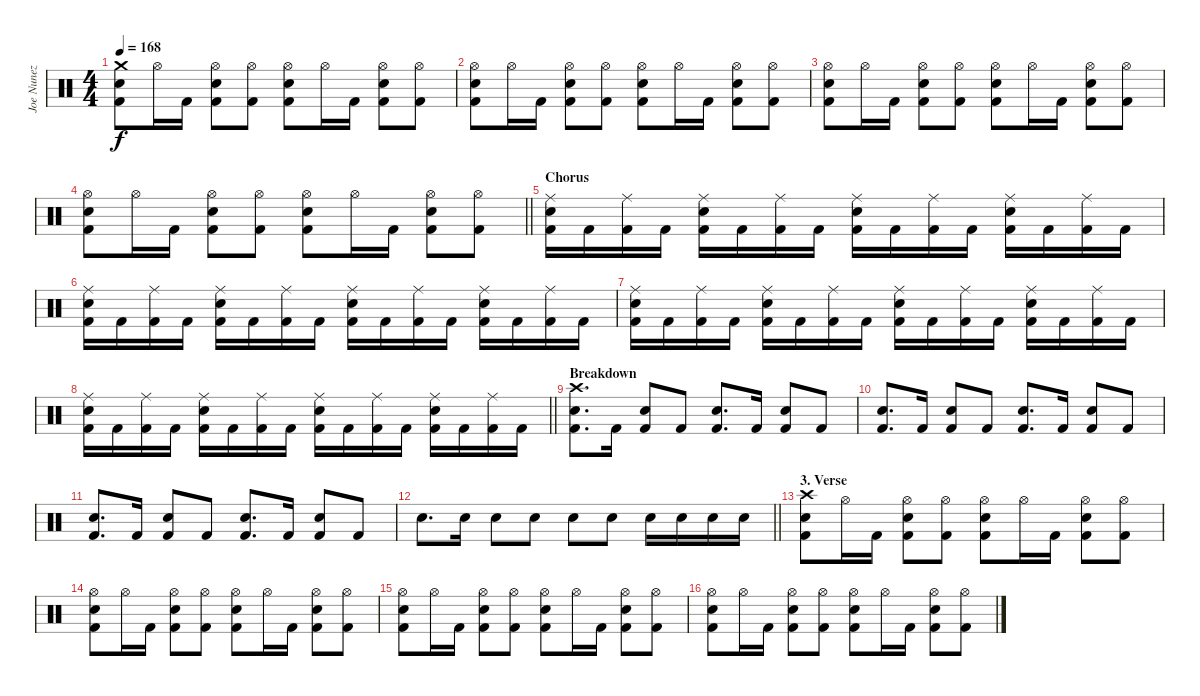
\track ("Joe Nunez (Drums)" "Joe Nunez ") {instrument percussion}
\staff {score}
\articulation defaults
\ts (4 4)
\tempo 168
\clef neutral
\ks c
("Crash medium (hit)" "Snare (hit) 2" "Kick (hit) 2").8{dy f} "Hi-Hat (open)".16 "Kick (hit) 2".16 ("Hi-Hat (open)" "Snare (hit) 2" "Kick (hit) 2").8 ("Hi-Hat (open)" "Kick (hit) 2").8 ("Hi-Hat (open)" "Snare (hit) 2" "Kick (hit) 2").8 "Hi-Hat (open)".16 "Kick (hit) 2".16 ("Hi-Hat (open)" "Snare (hit) 2" "Kick (hit) 2").8 ("Hi-Hat (open)" "Kick (hit) 2").8 |
("Hi-Hat (open)" "Snare (hit) 2" "Kick (hit) 2").8 "Hi-Hat (open)".16 "Kick (hit) 2".16 ("Hi-Hat (open)" "Snare (hit) 2" "Kick (hit) 2").8 ("Hi-Hat (open)" "Kick (hit) 2").8 ("Hi-Hat (open)" "Snare (hit) 2" "Kick (hit) 2").8 "Hi-Hat (open)".16 "Kick (hit) 2".16 ("Hi-Hat (open)" "Snare (hit) 2" "Kick (hit) 2").8 ("Hi-Hat (open)" "Kick (hit) 2").8 |
("Hi-Hat (open)" "Snare (hit) 2" "Kick (hit) 2").8 "Hi-Hat (open)".16 "Kick (hit) 2".16 ("Hi-Hat (open)" "Snare (hit) 2" "Kick (hit) 2").8 ("Hi-Hat (open)" "Kick (hit) 2").8 ("Hi-Hat (open)" "Snare (hit) 2" "Kick (hit) 2").8 "Hi-Hat (open)".16 "Kick (hit) 2".16 ("Hi-Hat (open)" "Snare (hit) 2" "Kick (hit) 2").8 ("Hi-Hat (open)" "Kick (hit) 2").8 |
\barLineRight lightlight
("Hi-Hat (open)" "Snare (hit) 2" "Kick (hit) 2").8 "Hi-Hat (open)".16 "Kick (hit) 2".16 ("Hi-Hat (open)" "Snare (hit) 2" "Kick (hit) 2").8 ("Hi-Hat (open)" "Kick (hit) 2").8 ("Hi-Hat (open)" "Snare (hit) 2" "Kick (hit) 2").8 "Hi-Hat (open)".16 "Kick (hit) 2".16 ("Hi-Hat (open)" "Snare (hit) 2" "Kick (hit) 2").8 ("Hi-Hat (open)" "Kick (hit) 2").8 |
\section ("" "Chorus")
("Ride (middle)" "Snare (hit) 2" "Kick (hit) 2").16 "Kick (hit) 2".16 ("Ride (middle)" "Kick (hit) 2").16 "Kick (hit) 2".16 ("Ride (middle)" "Snare (hit) 2" "Kick (hit) 2").16 "Kick (hit) 2".16 ("Ride (middle)" "Kick (hit) 2").16 "Kick (hit) 2".16 ("Ride (middle)" "Snare (hit) 2" "Kick (hit) 2").16 "Kick (hit) 2".16 ("Ride (middle)" "Kick (hit) 2").16 "Kick (hit) 2".16 ("Ride (middle)" "Snare (hit) 2" "Kick (hit) 2").16 "Kick (hit) 2".16 ("Ride (middle)" "Kick (hit) 2").16 "Kick (hit) 2".16 |
("Ride (middle)" "Snare (hit) 2" "Kick (hit) 2").16 "Kick (hit) 2".16 ("Ride (middle)" "Kick (hit) 2").16 "Kick (hit) 2".16 ("Ride (middle)" "Snare (hit) 2" "Kick (hit) 2").16 "Kick (hit) 2".16 ("Ride (middle)" "Kick (hit) 2").16 "Kick (hit) 2".16 ("Ride (middle)" "Snare (hit) 2" "Kick (hit) 2").16 "Kick (hit) 2".16 ("Ride (middle)" "Kick (hit) 2").16 "Kick (hit) 2".16 ("Ride (middle)" "Snare (hit) 2" "Kick (hit) 2").16 "Kick (hit) 2".16 ("Ride (middle)" "Kick (hit) 2").16 "Kick (hit) 2".16 |
("Ride (middle)" "Snare (hit) 2" "Kick (hit) 2").16 "Kick (hit) 2".16 ("Ride (middle)" "Kick (hit) 2").16 "Kick (hit) 2".16 ("Ride (middle)" "Snare (hit) 2" "Kick (hit) 2").16 "Kick (hit) 2".16 ("Ride (middle)" "Kick (hit) 2").16 "Kick (hit) 2".16 ("Ride (middle)" "Snare (hit) 2" "Kick (hit) 2").16 "Kick (hit) 2".16 ("Ride (middle)" "Kick (hit) 2").16 "Kick (hit) 2".16 ("Ride (middle)" "Snare (hit) 2" "Kick (hit) 2").16 "Kick (hit) 2".16 ("Ride (middle)" "Kick (hit) 2").16 "Kick (hit) 2".16 |
\barLineRight lightlight
("Ride (middle)" "Snare (hit) 2" "Kick (hit) 2").16 "Kick (hit) 2".16 ("Ride (middle)" "Kick (hit) 2").16 "Kick (hit) 2".16 ("Ride (middle)" "Snare (hit) 2" "Kick (hit) 2").16 "Kick (hit) 2".16 ("Ride (middle)" "Kick (hit) 2").16 "Kick (hit) 2".16 ("Ride (middle)" "Snare (hit) 2" "Kick (hit) 2").16 "Kick (hit) 2".16 ("Ride (middle)" "Kick (hit) 2").16 "Kick (hit) 2".16 ("Ride (middle)" "Snare (hit) 2" "Kick (hit) 2").16 "Kick (hit) 2".16 ("Ride (middle)" "Kick (hit) 2").16 "Kick (hit) 2".16 |
\section ("" "Breakdown")
("Crash high (hit)" "Snare (hit) 2" "Kick (hit) 2").8{d} "Kick (hit) 2".16 ("Snare (hit) 2" "Kick (hit) 2").8 "Kick (hit) 2".8 ("Snare (hit) 2" "Kick (hit) 2").8{d} "Kick (hit) 2".16 ("Snare (hit) 2" "Kick (hit) 2").8 "Kick (hit) 2".8 |
("Snare (hit) 2" "Kick (hit) 2").8{d} "Kick (hit) 2".16 ("Snare (hit) 2" "Kick (hit) 2").8 "Kick (hit) 2".8 ("Snare (hit) 2" "Kick (hit) 2").8{d} "Kick (hit) 2".16 ("Snare (hit) 2" "Kick (hit) 2").8 "Kick (hit) 2".8 |
("Snare (hit) 2" "Kick (hit) 2").8{d} "Kick (hit) 2".16 ("Snare (hit) 2" "Kick (hit) 2").8 "Kick (hit) 2".8 ("Snare (hit) 2" "Kick (hit) 2").8{d} "Kick (hit) 2".16 ("Snare (hit) 2" "Kick (hit) 2").8 "Kick (hit) 2".8 |
\barLineRight lightlight "Snare (hit) 2".8{d} "Snare (hit) 2".16 "Snare (hit) 2".8 "Snare (hit) 2".8 "Snare (hit) 2".8 "Snare (hit) 2".8 "Snare (hit) 2".16 "Snare (hit) 2".16 "Snare (hit) 2".16 "Snare (hit) 2".16
|
\section ("" "3. Verse")
("Crash high (hit)" "Snare (hit) 2" "Kick (hit) 2").8 "Hi-Hat (open)".16 "Kick (hit) 2".16 ("Hi-Hat (open)" "Snare (hit) 2" "Kick (hit) 2").8 ("Hi-Hat (open)" "Kick (hit) 2").8 ("Hi-Hat (open)" "Snare (hit) 2" "Kick (hit) 2").8 "Hi-Hat (open)".16 "Kick (hit) 2".16 ("Hi-Hat (open)" "Snare (hit) 2" "Kick (hit) 2").8 ("Hi-Hat (open)" "Kick (hit) 2").8 |
("Hi-Hat (open)" "Snare (hit) 2" "Kick (hit) 2").8 "Hi-Hat (open)".16 "Kick (hit) 2".16 ("Hi-Hat (open)" "Snare (hit) 2" "Kick (hit) 2").8 ("Hi-Hat (open)" "Kick (hit) 2").8 ("Hi-Hat (open)" "Snare (hit) 2" "Kick (hit) 2").8 "Hi-Hat (open)".16 "Kick (hit) 2".16 ("Hi-Hat (open)" "Snare (hit) 2" "Kick (hit) 2").8 ("Hi-Hat (open)" "Kick (hit) 2").8 |
("Hi-Hat (open)" "Snare (hit) 2" "Kick (hit) 2").8 "Hi-Hat (open)".16 "Kick (hit) 2".16 ("Hi-Hat (open)" "Snare (hit) 2" "Kick (hit) 2").8 ("Hi-Hat (open)" "Kick (hit) 2").8 ("Hi-Hat (open)" "Snare (hit) 2" "Kick (hit) 2").8 "Hi-Hat (open)".16 "Kick (hit) 2".16 ("Hi-Hat (open)" "Snare (hit) 2" "Kick (hit) 2").8 ("Hi-Hat (open)" "Kick (hit) 2").8 |
("Hi-Hat (open)" "Snare (hit) 2" "Kick (hit) 2").8 "Hi-Hat (open)".16 "Kick (hit) 2".16 ("Hi-Hat (open)" "Snare (hit) 2" "Kick (hit) 2").8 ("Hi-Hat (open)" "Kick (hit) 2").8 ("Hi-Hat (open)" "Snare (hit) 2" "Kick (hit) 2").8 "Hi-Hat (open)".16 "Kick (hit) 2".16 ("Hi-Hat (open)" "Snare (hit) 2" "Kick (hit) 2").8 ("Hi-Hat (open)" "Kick (hit) 2").8
